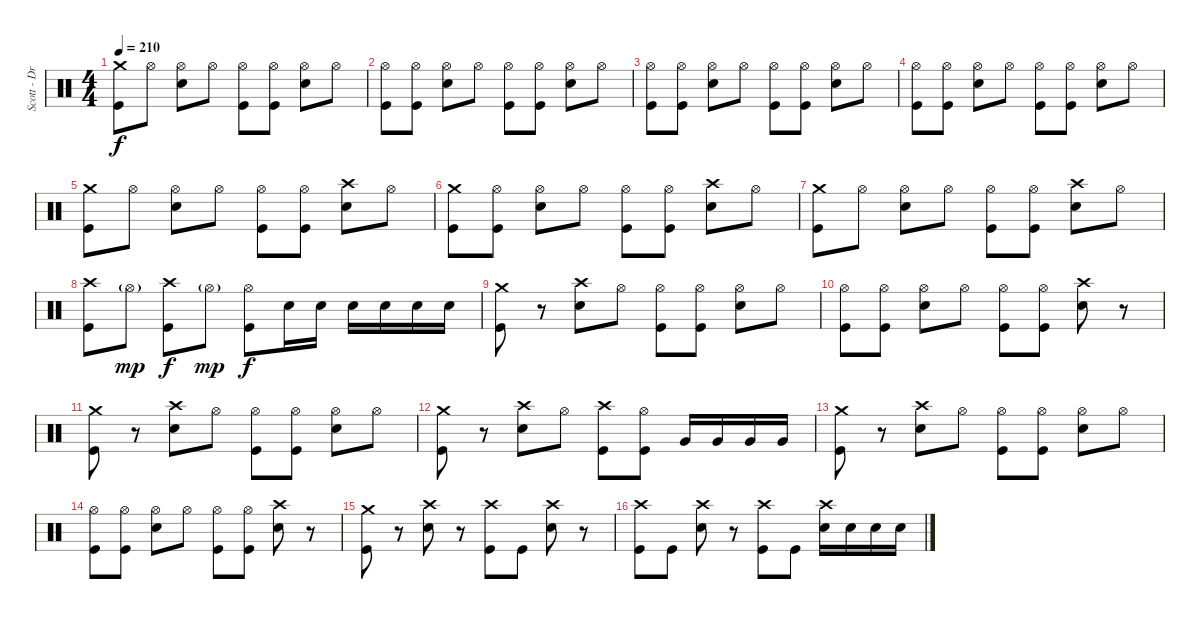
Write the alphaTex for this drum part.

\track ("Scott - Drums" "Scott - Dr") {instrument percussion}
\staff {score}
\articulation defaults
\ts (4 4)
\tempo 210
\clef neutral
\ks c
("Crash medium (hit)" "Kick (hit)").8{dy f} "Hi-Hat (open)".8 ("Hi-Hat (open)" "Electric Snare (hit)").8 "Hi-Hat (open)".8 ("Hi-Hat (open)" "Kick (hit)").8 ("Hi-Hat (open)" "Kick (hit)").8 ("Hi-Hat (open)" "Electric Snare (hit)").8 "Hi-Hat (open)".8 |
("Hi-Hat (open)" "Kick (hit)").8 ("Hi-Hat (open)" "Kick (hit)").8 ("Hi-Hat (open)" "Electric Snare (hit)").8 "Hi-Hat (open)".8 ("Hi-Hat (open)" "Kick (hit)").8 ("Hi-Hat (open)" "Kick (hit)").8 ("Hi-Hat (open)" "Electric Snare (hit)").8 "Hi-Hat (open)".8 |
("Hi-Hat (open)" "Kick (hit)").8 ("Hi-Hat (open)" "Kick (hit)").8 ("Hi-Hat (open)" "Electric Snare (hit)").8 "Hi-Hat (open)".8 ("Hi-Hat (open)" "Kick (hit)").8 ("Hi-Hat (open)" "Kick (hit)").8 ("Hi-Hat (open)" "Electric Snare (hit)").8 "Hi-Hat (open)".8 |
("Hi-Hat (open)" "Kick (hit)").8 ("Hi-Hat (open)" "Kick (hit)").8 ("Hi-Hat (open)" "Electric Snare (hit)").8 "Hi-Hat (open)".8 ("Hi-Hat (open)" "Kick (hit)").8 ("Hi-Hat (open)" "Kick (hit)").8 ("Hi-Hat (open)" "Electric Snare (hit)").8 "Hi-Hat (open)".8 |
("Crash medium (hit)" "Kick (hit)").8 "Hi-Hat (open)".8 ("Hi-Hat (open)" "Electric Snare (hit)").8 "Hi-Hat (open)".8 ("Hi-Hat (open)" "Kick (hit)").8 ("Hi-Hat (open)" "Kick (hit)").8 ("Crash high (hit)" "Electric Snare (hit)").8 "Hi-Hat (open)".8 |
("Crash medium (hit)" "Kick (hit)").8 ("Hi-Hat (open)" "Kick (hit)").8 ("Hi-Hat (open)" "Electric Snare (hit)").8 "Hi-Hat (open)".8 ("Hi-Hat (open)" "Kick (hit)").8 ("Hi-Hat (open)" "Kick (hit)").8 ("Crash high (hit)" "Electric Snare (hit)").8 "Hi-Hat (open)".8 |
("Crash medium (hit)" "Kick (hit)").8 "Hi-Hat (open)".8 ("Hi-Hat (open)" "Electric Snare (hit)").8 "Hi-Hat (open)".8 ("Hi-Hat (open)" "Kick (hit)").8 ("Hi-Hat (open)" "Kick (hit)").8 ("Crash high (hit)" "Electric Snare (hit)").8 "Hi-Hat (open)".8 |
("Crash high (hit)" "Kick (hit)").8 "Hi-Hat (open)"{g}.8{dy mp} ("Crash high (hit)" "Kick (hit)").8{dy f} "Hi-Hat (open)"{g}.8{dy mp} ("Hi-Hat (open)" "Kick (hit)").8{dy f} "Electric Snare (hit)".16 "Electric Snare (hit)".16 "Electric Snare (hit)".16 "Electric Snare (hit)".16 "Electric Snare (hit)".16 "Electric Snare (hit)".16 |
("Crash medium (hit)" "Kick (hit)").8 r.8 ("Crash high (hit)" "Electric Snare (hit)").8 "Hi-Hat (open)".8 ("Hi-Hat (open)" "Kick (hit)").8 ("Hi-Hat (open)" "Kick (hit)").8 ("Hi-Hat (open)" "Electric Snare (hit)").8 "Hi-Hat (open)".8 |
("Hi-Hat (open)" "Kick (hit)").8 ("Hi-Hat (open)" "Kick (hit)").8 ("Hi-Hat (open)" "Electric Snare (hit)").8 "Hi-Hat (open)".8 ("Hi-Hat (open)" "Kick (hit)").8 ("Hi-Hat (open)" "Kick (hit)").8 ("Crash high (hit)" "Electric Snare (hit)").8 r.8 |
("Crash medium (hit)" "Kick (hit)").8 r.8 ("Crash high (hit)" "Electric Snare (hit)").8 "Hi-Hat (open)".8 ("Hi-Hat (open)" "Kick (hit)").8 ("Hi-Hat (open)" "Kick (hit)").8 ("Hi-Hat (open)" "Electric Snare (hit)").8 "Hi-Hat (open)".8 |
("Crash medium (hit)" "Kick (hit)").8 r.8 ("Crash high (hit)" "Electric Snare (hit)").8 "Hi-Hat (open)".8 ("Crash high (hit)" "Kick (hit)").8 ("Hi-Hat (open)" "Kick (hit)").8 "Very Low Tom (hit)".16 "Very Low Tom (hit)".16 "Very Low Tom (hit)".16 "Very Low Tom (hit)".16 |
("Crash medium (hit)" "Kick (hit)").8 r.8 ("Crash high (hit)" "Electric Snare (hit)").8 "Hi-Hat (open)".8 ("Hi-Hat (open)" "Kick (hit)").8 ("Hi-Hat (open)" "Kick (hit)").8 ("Hi-Hat (open)" "Electric Snare (hit)").8 "Hi-Hat (open)".8 |
("Hi-Hat (open)" "Kick (hit)").8 ("Hi-Hat (open)" "Kick (hit)").8 ("Hi-Hat (open)" "Electric Snare (hit)").8 "Hi-Hat (open)".8 ("Hi-Hat (open)" "Kick (hit)").8 ("Hi-Hat (open)" "Kick (hit)").8 ("Crash high (hit)" "Electric Snare (hit)").8 r.8 |
("Crash medium (hit)" "Kick (hit)").8 r.8 ("Crash high (hit)" "Electric Snare (hit)").8 r.8 ("Crash high (hit)" "Kick (hit)").8 "Kick (hit)".8 ("Crash high (hit)" "Electric Snare (hit)").8 r.8 |
("Crash high (hit)" "Kick (hit)").8 "Kick (hit)".8 ("Crash high (hit)" "Electric Snare (hit)").8 r.8 ("Crash high (hit)" "Kick (hit)").8 "Kick (hit)".8 ("Crash high (hit)" "Electric Snare (hit)").16 "Electric Snare (hit)".16 "Electric Snare (hit)".16 "Electric Snare (hit)".16
